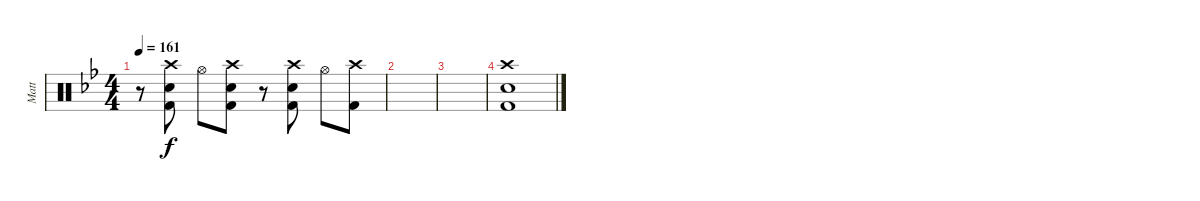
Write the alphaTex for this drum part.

\track ("Matt" "Matt") {instrument percussion}
\staff {score}
\articulation defaults
\ts (4 4)
\tempo 161
\clef neutral
\ks bb
r.8{dy f} ("Crash high (hit)" "Snare (hit) 2" "Kick (hit) 2").8 "Hi-Hat (open)".8 ("Crash high (hit)" "Snare (hit) 2" "Kick (hit) 2").8 r.8 ("Crash high (hit)" "Snare (hit) 2" "Kick (hit) 2").8 "Hi-Hat (open)".8 ("Crash high (hit)" "Kick (hit) 2").8 |
|
|
("Crash high (hit)" "Snare (hit) 2" "Kick (hit) 2").1
